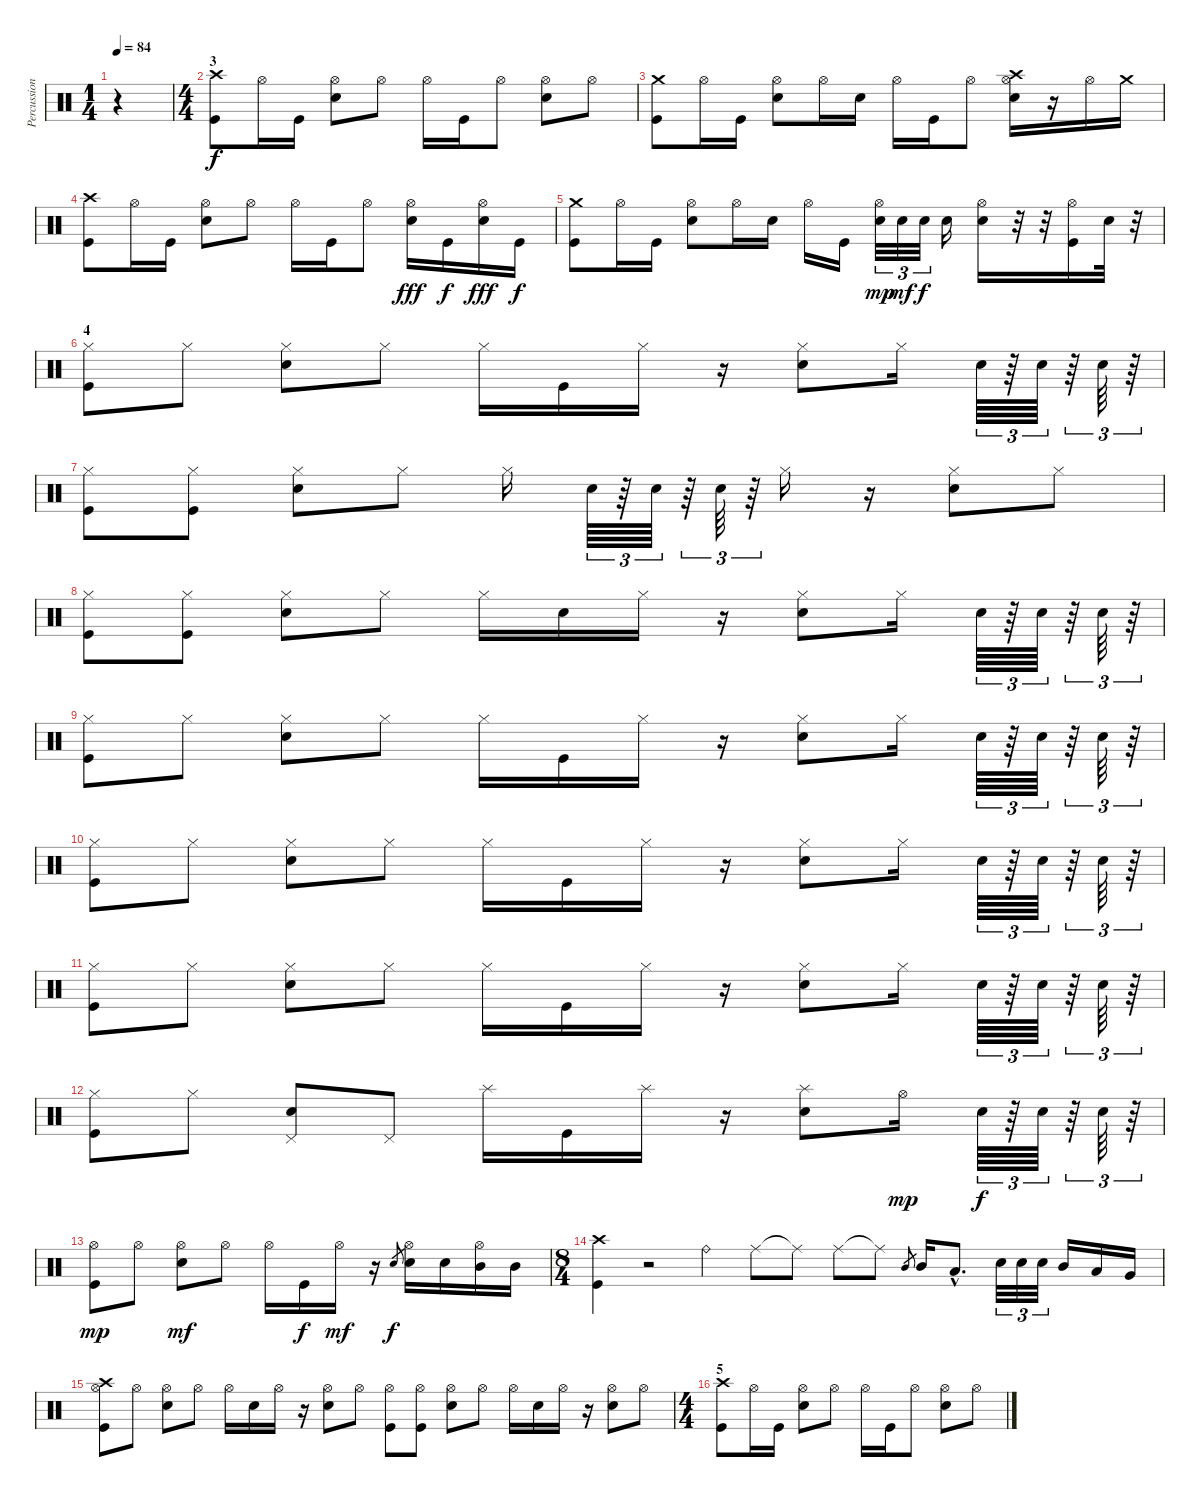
\track ("Percussions" "Percussion") {instrument percussion}
\staff {score}
\articulation defaults
\ts (1 4)
\tempo 84
\clef neutral
\ks c
r.4{dy f} |
\ts (4 4)
\section ("" "3")
("Crash high (hit)" "Kick (hit)").8 "Hi-Hat (open)".16 "Kick (hit)".16 ("Hi-Hat (open)" "Snare (hit) 2").8 "Hi-Hat (open)".8 "Hi-Hat (open)".16 "Kick (hit)".16 "Hi-Hat (open)".8 ("Hi-Hat (open)" "Snare (hit) 2").8 "Hi-Hat (open)".8 |
("Crash medium (hit)" "Kick (hit)").8 "Hi-Hat (open)".16 "Kick (hit)".16 ("Hi-Hat (open)" "Snare (hit) 2").8 "Hi-Hat (open)".16 "Snare (hit) 2".16 "Hi-Hat (open)".16 "Kick (hit)".16 "Hi-Hat (open)".8 ("Hi-Hat (open)" "Crash high (hit)" "Snare (hit) 2").16 r.16 "Hi-Hat (open)".16 "Crash medium (hit)".16 |
("Crash high (hit)" "Kick (hit)").8 "Hi-Hat (open)".16 "Kick (hit)".16 ("Hi-Hat (open)" "Snare (hit) 2").8 "Hi-Hat (open)".8 "Hi-Hat (open)".16 "Kick (hit)".16 "Hi-Hat (open)".8 ("Hi-Hat (open)" "Snare (hit) 2").16{dy fff} "Kick (hit)".16{dy f} ("Hi-Hat (open)" "Snare (hit) 2").16{dy fff} "Kick (hit)".16{dy f} |
("Crash medium (hit)" "Kick (hit)").8 "Hi-Hat (open)".16 "Kick (hit)".16 ("Hi-Hat (open)" "Snare (hit) 2").8 "Hi-Hat (open)".16 "Snare (hit) 2".16 "Hi-Hat (open)".16 "Kick (hit)".16 ("Hi-Hat (open)" "Snare (hit) 2").32{tu (3 2) dy mp} "Snare (hit) 2".32{tu (3 2) dy mf} "Snare (hit) 2".32{tu (3 2) dy f} "Snare (hit) 2".16 ("Hi-Hat (open)" "Snare (hit) 2").16 r.32 r.32 ("Hi-Hat (open)" "Kick (hit)").16 "Snare (hit) 2".32 r.32 |
\section ("" "4")
("Hi-Hat (closed)" "Kick (hit)").8 "Hi-Hat (closed)".8 ("Hi-Hat (closed)" "Snare (hit) 2").8 "Hi-Hat (closed)".8 "Hi-Hat (closed)".16 "Kick (hit)".16 "Hi-Hat (closed)".16 r.16 ("Hi-Hat (closed)" "Snare (hit) 2").8 "Hi-Hat (closed)".16 "Snare (hit) 2".64{tu (3 2)} r.64{tu (3 2)} "Snare (hit) 2".64{tu (3 2)} r.64{tu (3 2)} "Snare (hit) 2".64{tu (3 2)} r.64{tu (3 2)} |
("Hi-Hat (closed)" "Kick (hit)").8 ("Hi-Hat (closed)" "Kick (hit)").8 ("Hi-Hat (closed)" "Snare (hit) 2").8 "Hi-Hat (closed)".8 "Hi-Hat (closed)".16 "Snare (hit) 2".64{tu (3 2)} r.64{tu (3 2)} "Snare (hit) 2".64{tu (3 2)} r.64{tu (3 2)} "Snare (hit) 2".64{tu (3 2)} r.64{tu (3 2)} "Hi-Hat (closed)".16 r.16 ("Hi-Hat (closed)" "Snare (hit) 2").8 "Hi-Hat (closed)".8 |
("Hi-Hat (closed)" "Kick (hit)").8 ("Hi-Hat (closed)" "Kick (hit)").8 ("Hi-Hat (closed)" "Snare (hit) 2").8 "Hi-Hat (closed)".8 "Hi-Hat (closed)".16 "Snare (hit) 2".16 "Hi-Hat (closed)".16 r.16 ("Hi-Hat (closed)" "Snare (hit) 2").8 "Hi-Hat (closed)".16 "Snare (hit) 2".64{tu (3 2)} r.64{tu (3 2)} "Snare (hit) 2".64{tu (3 2)} r.64{tu (3 2)} "Snare (hit) 2".64{tu (3 2)} r.64{tu (3 2)} |
("Hi-Hat (closed)" "Kick (hit)").8 "Hi-Hat (closed)".8 ("Hi-Hat (closed)" "Snare (hit) 2").8 "Hi-Hat (closed)".8 "Hi-Hat (closed)".16 "Kick (hit)".16 "Hi-Hat (closed)".16 r.16 ("Hi-Hat (closed)" "Snare (hit) 2").8 "Hi-Hat (closed)".16 "Snare (hit) 2".64{tu (3 2)} r.64{tu (3 2)} "Snare (hit) 2".64{tu (3 2)} r.64{tu (3 2)} "Snare (hit) 2".64{tu (3 2)} r.64{tu (3 2)} |
("Hi-Hat (closed)" "Kick (hit)").8 "Hi-Hat (closed)".8 ("Hi-Hat (closed)" "Snare (hit) 2").8 "Hi-Hat (closed)".8 "Hi-Hat (closed)".16 "Kick (hit)".16 "Hi-Hat (closed)".16 r.16 ("Hi-Hat (closed)" "Snare (hit) 2").8 "Hi-Hat (closed)".16 "Snare (hit) 2".64{tu (3 2)} r.64{tu (3 2)} "Snare (hit) 2".64{tu (3 2)} r.64{tu (3 2)} "Snare (hit) 2".64{tu (3 2)} r.64{tu (3 2)} |
("Hi-Hat (closed)" "Kick (hit)").8 "Hi-Hat (closed)".8 ("Hi-Hat (closed)" "Snare (hit) 2").8 "Hi-Hat (closed)".8 "Hi-Hat (closed)".16 "Kick (hit)".16 "Hi-Hat (closed)".16 r.16 ("Hi-Hat (closed)" "Snare (hit) 2").8 "Hi-Hat (closed)".16 "Snare (hit) 2".64{tu (3 2)} r.64{tu (3 2)} "Snare (hit) 2".64{tu (3 2)} r.64{tu (3 2)} "Snare (hit) 2".64{tu (3 2)} r.64{tu (3 2)} |
("Hi-Hat (closed)" "Kick (hit)").8 "Hi-Hat (closed)".8 ("Pedal Hi-Hat (hit)" "Snare (hit) 2").8 "Pedal Hi-Hat (hit)".8 "Splash (hit)".16 "Kick (hit)".16 "Splash (hit)".16 r.16 ("Splash (hit)" "Snare (hit) 2").8 "Hi-Hat (open)".16{dy mp} "Snare (hit) 2".64{tu (3 2) dy f} r.64{tu (3 2)} "Snare (hit) 2".64{tu (3 2)} r.64{tu (3 2)} "Snare (hit) 2".64{tu (3 2)} r.64{tu (3 2)} |
("Hi-Hat (open)" "Kick (hit)").8{dy mp} "Hi-Hat (open)".8 ("Hi-Hat (open)" "Snare (hit) 2").8{dy mf} "Hi-Hat (open)".8 "Hi-Hat (open)".16 "Kick (hit)".16{dy f} "Hi-Hat (open)".16{dy mf} r.16 "Snare (hit) 2".8{gr dy f} ("Hi-Hat (open)" "Snare (hit) 2").16 "Snare (hit) 2".16 ("Hi-Hat (open)" "Mid Tom (hit)").16 "Mid Tom (hit)".16 |
\ts (8 4)
("Crash high (hit)" "Kick (hit)").4 r.2 "Ride (bell)".4 "Ride (middle)".8 "Ride (middle)"{t}.8 "Ride (middle)".8 "Ride (middle)"{t}.8 "Mid Tom (hit)".8{gr} "Mid Tom (hit)".16 "Low Tom (hit)"{hac}.8{d} "Snare (hit) 2".32{tu (3 2)} "Snare (hit) 2".32{tu (3 2)} "Snare (hit) 2".32{tu (3 2)} "Mid Tom (hit)".16 "Low Tom (hit)".16 "Very Low Tom (hit)".16 |
("Hi-Hat (open)" "Crash high (hit)" "Kick (hit)").8 "Hi-Hat (open)".8 ("Hi-Hat (open)" "Snare (hit) 2").8 "Hi-Hat (open)".8 "Hi-Hat (open)".16 "Snare (hit) 2".16 "Hi-Hat (open)".16 r.16 ("Hi-Hat (open)" "Snare (hit) 2").8 "Hi-Hat (open)".8 ("Hi-Hat (open)" "Kick (hit)").8 ("Hi-Hat (open)" "Kick (hit)").8 ("Hi-Hat (open)" "Snare (hit) 2").8 "Hi-Hat (open)".8 "Hi-Hat (open)".16 "Snare (hit) 2".16 "Hi-Hat (open)".16 r.16 ("Hi-Hat (open)" "Snare (hit) 2").8 "Hi-Hat (open)".8 |
\ts (4 4)
\section ("" "5")
("Crash high (hit)" "Kick (hit)").8 "Hi-Hat (open)".16 "Kick (hit)".16 ("Hi-Hat (open)" "Snare (hit) 2").8 "Hi-Hat (open)".8 "Hi-Hat (open)".16 "Kick (hit)".16 "Hi-Hat (open)".8 ("Hi-Hat (open)" "Snare (hit) 2").8 "Hi-Hat (open)".8
